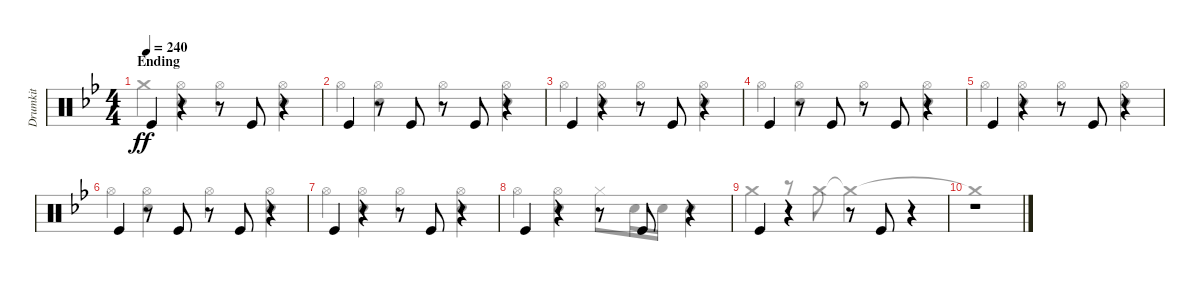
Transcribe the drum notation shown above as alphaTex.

\track ("Drumkit" "Drumkit") {instrument percussion}
\staff {score}
\articulation defaults
\voice
\ts (4 4)
\section ("" "Ending")
\tempo 240
\clef neutral
\ks bb "Kick (hit)".4{dy ff}
r.4 r.8 "Kick (hit)".8 r.4 |
"Kick (hit)".4 r.8 "Kick (hit)".8 r.8 "Kick (hit)".8 r.4 |
"Kick (hit)".4 r.4 r.8 "Kick (hit)".8 r.4 |
"Kick (hit)".4 r.8 "Kick (hit)".8 r.8 "Kick (hit)".8 r.4 |
"Kick (hit)".4 r.4 r.8 "Kick (hit)".8 r.4 |
"Kick (hit)".4 r.8 "Kick (hit)".8 r.8 "Kick (hit)".8 r.4 |
"Kick (hit)".4 r.4 r.8 "Kick (hit)".8 r.4 |
"Kick (hit)".4 r.4 r.8 "Kick (hit)".8 r.4 |
"Kick (hit)".4 r.4 r.8 "Kick (hit)".8 r.4 |
r.1
\voice
\clef neutral
\ottava regular
\simile none
\ks bb "Crash medium (hit)".4{dy ff}
("Hi-Hat (open)" "Snare (hit) 2").4 "Hi-Hat (open)".4 ("Hi-Hat (open)" "Snare (hit) 2").4 |
"Hi-Hat (open)".4 ("Hi-Hat (open)" "Snare (hit) 2").4 "Hi-Hat (open)".4 ("Hi-Hat (open)" "Snare (hit) 2").4 |
"Hi-Hat (open)".4 ("Hi-Hat (open)" "Snare (hit) 2").4 "Hi-Hat (open)".4 ("Hi-Hat (open)" "Snare (hit) 2").4 |
"Hi-Hat (open)".4 ("Hi-Hat (open)" "Snare (hit) 2").4 "Hi-Hat (open)".4 ("Hi-Hat (open)" "Snare (hit) 2").4 |
"Hi-Hat (open)".4 ("Hi-Hat (open)" "Snare (hit) 2").4 "Hi-Hat (open)".4 ("Hi-Hat (open)" "Snare (hit) 2").4 |
"Hi-Hat (open)".4 ("Hi-Hat (open)" "Snare (hit) 2").4 "Hi-Hat (open)".4 ("Hi-Hat (open)" "Snare (hit) 2").4 |
"Hi-Hat (open)".4 ("Hi-Hat (open)" "Snare (hit) 2").4 "Hi-Hat (open)".4 ("Hi-Hat (open)" "Snare (hit) 2").4 |
"Hi-Hat (open)".4 ("Hi-Hat (open)" "Snare (hit) 2").4 "Hi-Hat (closed)".8 "Snare (hit) 2".16 "Snare (hit) 2".16 "Snare (hit) 2".4 |
"Crash medium (hit)".4 r.8 "Crash medium (hit)".8 "Crash medium (hit)"{t}.2 |
"Crash medium (hit)"{t}.1
